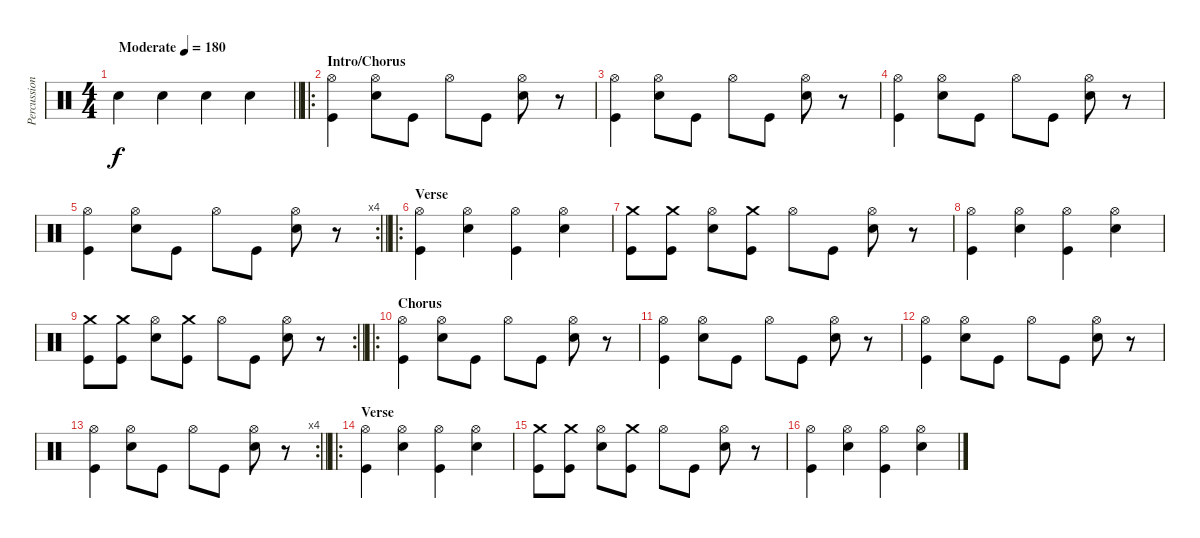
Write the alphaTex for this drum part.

\track ("Percussion" "Percussion") {instrument percussion}
\staff {score}
\articulation defaults
\ts (4 4)
\tempo (180 "Moderate")
\clef neutral
\barLineRight lightlight
\ks c "Snare (hit) 2".4{dy f} "Snare (hit) 2".4 "Snare (hit) 2".4 "Snare (hit) 2".4
|
\ro
\section ("" "Intro/Chorus")
("Hi-Hat (open)" "Kick (hit)").4 ("Hi-Hat (open)" "Snare (hit) 2").8 "Kick (hit)".8 "Hi-Hat (open)".8 "Kick (hit)".8 ("Hi-Hat (open)" "Snare (hit) 2").8 r.8 |
("Hi-Hat (open)" "Kick (hit)").4 ("Hi-Hat (open)" "Snare (hit) 2").8 "Kick (hit)".8 "Hi-Hat (open)".8 "Kick (hit)".8 ("Hi-Hat (open)" "Snare (hit) 2").8 r.8 |
("Hi-Hat (open)" "Kick (hit)").4 ("Hi-Hat (open)" "Snare (hit) 2").8 "Kick (hit)".8 "Hi-Hat (open)".8 "Kick (hit)".8 ("Hi-Hat (open)" "Snare (hit) 2").8 r.8 |
\rc 4
\barLineRight lightlight
("Hi-Hat (open)" "Kick (hit)").4 ("Hi-Hat (open)" "Snare (hit) 2").8 "Kick (hit)".8 "Hi-Hat (open)".8 "Kick (hit)".8 ("Hi-Hat (open)" "Snare (hit) 2").8 r.8 |
\ro
\section ("" "Verse")
("Hi-Hat (open)" "Kick (hit)").4 ("Hi-Hat (open)" "Snare (hit) 2").4 ("Hi-Hat (open)" "Kick (hit)").4 ("Hi-Hat (open)" "Snare (hit) 2").4 |
("Crash medium (hit)" "Kick (hit)").8 ("Crash medium (hit)" "Kick (hit)").8 ("Hi-Hat (open)" "Snare (hit) 2").8 ("Crash medium (hit)" "Kick (hit)").8 "Hi-Hat (open)".8 "Kick (hit)".8 ("Hi-Hat (open)" "Snare (hit) 2").8 r.8 |
("Hi-Hat (open)" "Kick (hit)").4 ("Hi-Hat (open)" "Snare (hit) 2").4 ("Hi-Hat (open)" "Kick (hit)").4 ("Hi-Hat (open)" "Snare (hit) 2").4 |
\rc 2
\barLineRight lightlight
("Crash medium (hit)" "Kick (hit)").8 ("Crash medium (hit)" "Kick (hit)").8 ("Hi-Hat (open)" "Snare (hit) 2").8 ("Crash medium (hit)" "Kick (hit)").8 "Hi-Hat (open)".8 "Kick (hit)".8 ("Hi-Hat (open)" "Snare (hit) 2").8 r.8 |
\ro
\section ("" "Chorus")
("Hi-Hat (open)" "Kick (hit)").4 ("Hi-Hat (open)" "Snare (hit) 2").8 "Kick (hit)".8 "Hi-Hat (open)".8 "Kick (hit)".8 ("Hi-Hat (open)" "Snare (hit) 2").8 r.8 |
("Hi-Hat (open)" "Kick (hit)").4 ("Hi-Hat (open)" "Snare (hit) 2").8 "Kick (hit)".8 "Hi-Hat (open)".8 "Kick (hit)".8 ("Hi-Hat (open)" "Snare (hit) 2").8 r.8 |
("Hi-Hat (open)" "Kick (hit)").4 ("Hi-Hat (open)" "Snare (hit) 2").8 "Kick (hit)".8 "Hi-Hat (open)".8 "Kick (hit)".8 ("Hi-Hat (open)" "Snare (hit) 2").8 r.8 |
\rc 4
\barLineRight lightlight
("Hi-Hat (open)" "Kick (hit)").4 ("Hi-Hat (open)" "Snare (hit) 2").8 "Kick (hit)".8 "Hi-Hat (open)".8 "Kick (hit)".8 ("Hi-Hat (open)" "Snare (hit) 2").8 r.8 |
\ro
\section ("" "Verse")
("Hi-Hat (open)" "Kick (hit)").4 ("Hi-Hat (open)" "Snare (hit) 2").4 ("Hi-Hat (open)" "Kick (hit)").4 ("Hi-Hat (open)" "Snare (hit) 2").4 |
("Crash medium (hit)" "Kick (hit)").8 ("Crash medium (hit)" "Kick (hit)").8 ("Hi-Hat (open)" "Snare (hit) 2").8 ("Crash medium (hit)" "Kick (hit)").8 "Hi-Hat (open)".8 "Kick (hit)".8 ("Hi-Hat (open)" "Snare (hit) 2").8 r.8 |
("Hi-Hat (open)" "Kick (hit)").4 ("Hi-Hat (open)" "Snare (hit) 2").4 ("Hi-Hat (open)" "Kick (hit)").4 ("Hi-Hat (open)" "Snare (hit) 2").4
